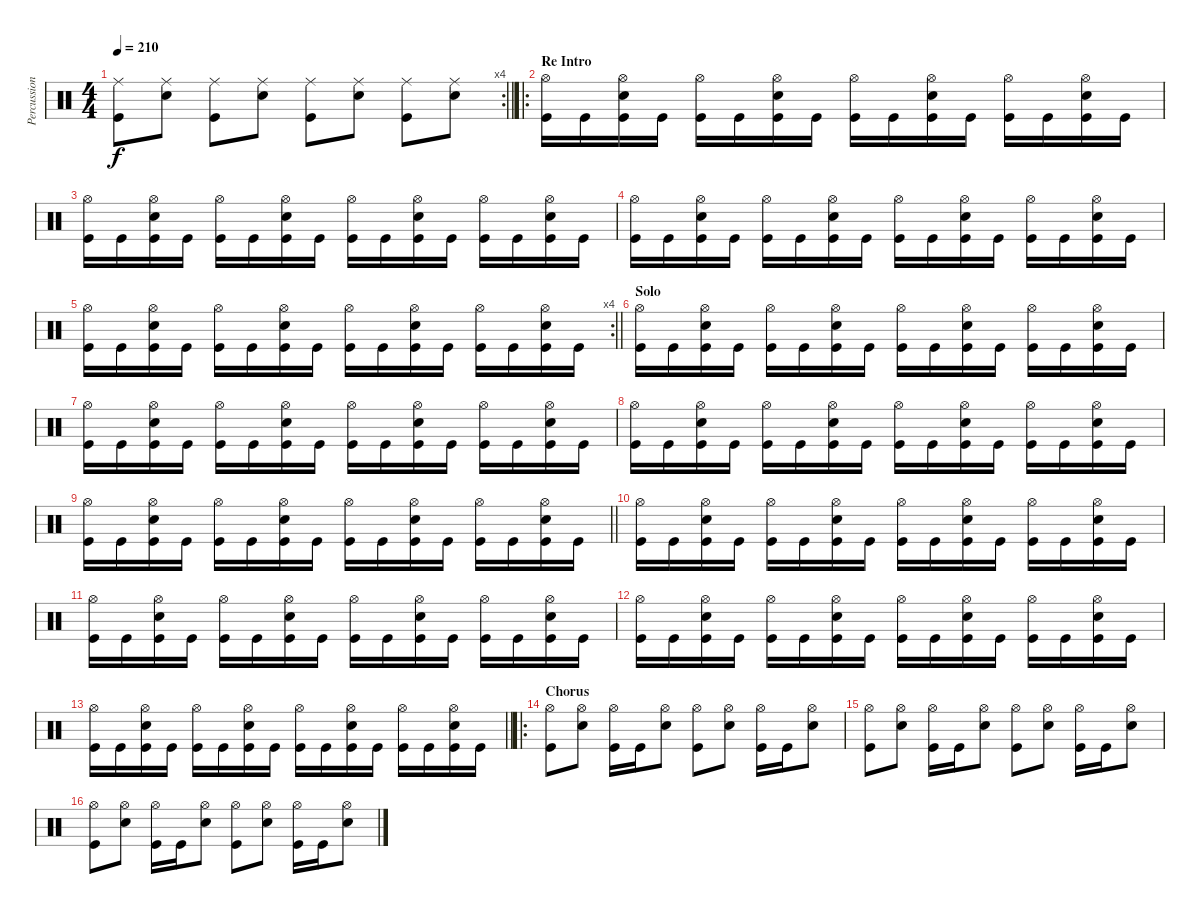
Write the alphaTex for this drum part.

\track ("Percussion" "Percussion") {instrument percussion}
\staff {score}
\articulation defaults
\rc 4
\ts (4 4)
\tempo 210
\clef neutral
\barLineRight lightlight
\ks c
("Ride (middle)" "Kick (hit)").8{dy f} ("Ride (middle)" "Snare (hit) 2").8 ("Ride (middle)" "Kick (hit)").8 ("Ride (middle)" "Snare (hit) 2").8 ("Ride (middle)" "Kick (hit)").8 ("Ride (middle)" "Snare (hit) 2").8 ("Ride (middle)" "Kick (hit)").8 ("Ride (middle)" "Snare (hit) 2").8 |
\ro
\section ("" "Re Intro")
("Hi-Hat (open)" "Kick (hit)").16 "Kick (hit)".16 ("Hi-Hat (open)" "Snare (hit) 2" "Kick (hit)").16 "Kick (hit)".16 ("Hi-Hat (open)" "Kick (hit)").16 "Kick (hit)".16 ("Hi-Hat (open)" "Snare (hit) 2" "Kick (hit)").16 "Kick (hit)".16 ("Hi-Hat (open)" "Kick (hit)").16 "Kick (hit)".16 ("Hi-Hat (open)" "Snare (hit) 2" "Kick (hit)").16 "Kick (hit)".16 ("Hi-Hat (open)" "Kick (hit)").16 "Kick (hit)".16 ("Hi-Hat (open)" "Snare (hit) 2" "Kick (hit)").16 "Kick (hit)".16 |
("Hi-Hat (open)" "Kick (hit)").16 "Kick (hit)".16 ("Hi-Hat (open)" "Snare (hit) 2" "Kick (hit)").16 "Kick (hit)".16 ("Hi-Hat (open)" "Kick (hit)").16 "Kick (hit)".16 ("Hi-Hat (open)" "Snare (hit) 2" "Kick (hit)").16 "Kick (hit)".16 ("Hi-Hat (open)" "Kick (hit)").16 "Kick (hit)".16 ("Hi-Hat (open)" "Snare (hit) 2" "Kick (hit)").16 "Kick (hit)".16 ("Hi-Hat (open)" "Kick (hit)").16 "Kick (hit)".16 ("Hi-Hat (open)" "Snare (hit) 2" "Kick (hit)").16 "Kick (hit)".16 |
("Hi-Hat (open)" "Kick (hit)").16 "Kick (hit)".16 ("Hi-Hat (open)" "Snare (hit) 2" "Kick (hit)").16 "Kick (hit)".16 ("Hi-Hat (open)" "Kick (hit)").16 "Kick (hit)".16 ("Hi-Hat (open)" "Snare (hit) 2" "Kick (hit)").16 "Kick (hit)".16 ("Hi-Hat (open)" "Kick (hit)").16 "Kick (hit)".16 ("Hi-Hat (open)" "Snare (hit) 2" "Kick (hit)").16 "Kick (hit)".16 ("Hi-Hat (open)" "Kick (hit)").16 "Kick (hit)".16 ("Hi-Hat (open)" "Snare (hit) 2" "Kick (hit)").16 "Kick (hit)".16 |
\rc 4
\barLineRight lightlight
("Hi-Hat (open)" "Kick (hit)").16 "Kick (hit)".16 ("Hi-Hat (open)" "Snare (hit) 2" "Kick (hit)").16 "Kick (hit)".16 ("Hi-Hat (open)" "Kick (hit)").16 "Kick (hit)".16 ("Hi-Hat (open)" "Snare (hit) 2" "Kick (hit)").16 "Kick (hit)".16 ("Hi-Hat (open)" "Kick (hit)").16 "Kick (hit)".16 ("Hi-Hat (open)" "Snare (hit) 2" "Kick (hit)").16 "Kick (hit)".16 ("Hi-Hat (open)" "Kick (hit)").16 "Kick (hit)".16 ("Hi-Hat (open)" "Snare (hit) 2" "Kick (hit)").16 "Kick (hit)".16 |
\section ("" "Solo")
("Hi-Hat (open)" "Kick (hit)").16 "Kick (hit)".16 ("Hi-Hat (open)" "Snare (hit) 2" "Kick (hit)").16 "Kick (hit)".16 ("Hi-Hat (open)" "Kick (hit)").16 "Kick (hit)".16 ("Hi-Hat (open)" "Snare (hit) 2" "Kick (hit)").16 "Kick (hit)".16 ("Hi-Hat (open)" "Kick (hit)").16 "Kick (hit)".16 ("Hi-Hat (open)" "Snare (hit) 2" "Kick (hit)").16 "Kick (hit)".16 ("Hi-Hat (open)" "Kick (hit)").16 "Kick (hit)".16 ("Hi-Hat (open)" "Snare (hit) 2" "Kick (hit)").16 "Kick (hit)".16 |
("Hi-Hat (open)" "Kick (hit)").16 "Kick (hit)".16 ("Hi-Hat (open)" "Snare (hit) 2" "Kick (hit)").16 "Kick (hit)".16 ("Hi-Hat (open)" "Kick (hit)").16 "Kick (hit)".16 ("Hi-Hat (open)" "Snare (hit) 2" "Kick (hit)").16 "Kick (hit)".16 ("Hi-Hat (open)" "Kick (hit)").16 "Kick (hit)".16 ("Hi-Hat (open)" "Snare (hit) 2" "Kick (hit)").16 "Kick (hit)".16 ("Hi-Hat (open)" "Kick (hit)").16 "Kick (hit)".16 ("Hi-Hat (open)" "Snare (hit) 2" "Kick (hit)").16 "Kick (hit)".16 |
("Hi-Hat (open)" "Kick (hit)").16 "Kick (hit)".16 ("Hi-Hat (open)" "Snare (hit) 2" "Kick (hit)").16 "Kick (hit)".16 ("Hi-Hat (open)" "Kick (hit)").16 "Kick (hit)".16 ("Hi-Hat (open)" "Snare (hit) 2" "Kick (hit)").16 "Kick (hit)".16 ("Hi-Hat (open)" "Kick (hit)").16 "Kick (hit)".16 ("Hi-Hat (open)" "Snare (hit) 2" "Kick (hit)").16 "Kick (hit)".16 ("Hi-Hat (open)" "Kick (hit)").16 "Kick (hit)".16 ("Hi-Hat (open)" "Snare (hit) 2" "Kick (hit)").16 "Kick (hit)".16 |
\barLineRight lightlight
("Hi-Hat (open)" "Kick (hit)").16 "Kick (hit)".16 ("Hi-Hat (open)" "Snare (hit) 2" "Kick (hit)").16 "Kick (hit)".16 ("Hi-Hat (open)" "Kick (hit)").16 "Kick (hit)".16 ("Hi-Hat (open)" "Snare (hit) 2" "Kick (hit)").16 "Kick (hit)".16 ("Hi-Hat (open)" "Kick (hit)").16 "Kick (hit)".16 ("Hi-Hat (open)" "Snare (hit) 2" "Kick (hit)").16 "Kick (hit)".16 ("Hi-Hat (open)" "Kick (hit)").16 "Kick (hit)".16 ("Hi-Hat (open)" "Snare (hit) 2" "Kick (hit)").16 "Kick (hit)".16 |
("Hi-Hat (open)" "Kick (hit)").16 "Kick (hit)".16 ("Hi-Hat (open)" "Snare (hit) 2" "Kick (hit)").16 "Kick (hit)".16 ("Hi-Hat (open)" "Kick (hit)").16 "Kick (hit)".16 ("Hi-Hat (open)" "Snare (hit) 2" "Kick (hit)").16 "Kick (hit)".16 ("Hi-Hat (open)" "Kick (hit)").16 "Kick (hit)".16 ("Hi-Hat (open)" "Snare (hit) 2" "Kick (hit)").16 "Kick (hit)".16 ("Hi-Hat (open)" "Kick (hit)").16 "Kick (hit)".16 ("Hi-Hat (open)" "Snare (hit) 2" "Kick (hit)").16 "Kick (hit)".16 |
("Hi-Hat (open)" "Kick (hit)").16 "Kick (hit)".16 ("Hi-Hat (open)" "Snare (hit) 2" "Kick (hit)").16 "Kick (hit)".16 ("Hi-Hat (open)" "Kick (hit)").16 "Kick (hit)".16 ("Hi-Hat (open)" "Snare (hit) 2" "Kick (hit)").16 "Kick (hit)".16 ("Hi-Hat (open)" "Kick (hit)").16 "Kick (hit)".16 ("Hi-Hat (open)" "Snare (hit) 2" "Kick (hit)").16 "Kick (hit)".16 ("Hi-Hat (open)" "Kick (hit)").16 "Kick (hit)".16 ("Hi-Hat (open)" "Snare (hit) 2" "Kick (hit)").16 "Kick (hit)".16 |
("Hi-Hat (open)" "Kick (hit)").16 "Kick (hit)".16 ("Hi-Hat (open)" "Snare (hit) 2" "Kick (hit)").16 "Kick (hit)".16 ("Hi-Hat (open)" "Kick (hit)").16 "Kick (hit)".16 ("Hi-Hat (open)" "Snare (hit) 2" "Kick (hit)").16 "Kick (hit)".16 ("Hi-Hat (open)" "Kick (hit)").16 "Kick (hit)".16 ("Hi-Hat (open)" "Snare (hit) 2" "Kick (hit)").16 "Kick (hit)".16 ("Hi-Hat (open)" "Kick (hit)").16 "Kick (hit)".16 ("Hi-Hat (open)" "Snare (hit) 2" "Kick (hit)").16 "Kick (hit)".16 |
\barLineRight lightlight
("Hi-Hat (open)" "Kick (hit)").16 "Kick (hit)".16 ("Hi-Hat (open)" "Snare (hit) 2" "Kick (hit)").16 "Kick (hit)".16 ("Hi-Hat (open)" "Kick (hit)").16 "Kick (hit)".16 ("Hi-Hat (open)" "Snare (hit) 2" "Kick (hit)").16 "Kick (hit)".16 ("Hi-Hat (open)" "Kick (hit)").16 "Kick (hit)".16 ("Hi-Hat (open)" "Snare (hit) 2" "Kick (hit)").16 "Kick (hit)".16 ("Hi-Hat (open)" "Kick (hit)").16 "Kick (hit)".16 ("Hi-Hat (open)" "Snare (hit) 2" "Kick (hit)").16 "Kick (hit)".16 |
\ro
\section ("" "Chorus")
("Hi-Hat (open)" "Kick (hit)").8 ("Hi-Hat (open)" "Snare (hit) 2").8 ("Hi-Hat (open)" "Kick (hit)").16 "Kick (hit)".16 ("Hi-Hat (open)" "Snare (hit) 2").8 ("Hi-Hat (open)" "Kick (hit)").8 ("Hi-Hat (open)" "Snare (hit) 2").8 ("Hi-Hat (open)" "Kick (hit)").16 "Kick (hit)".16 ("Hi-Hat (open)" "Snare (hit) 2").8 |
("Hi-Hat (open)" "Kick (hit)").8 ("Hi-Hat (open)" "Snare (hit) 2").8 ("Hi-Hat (open)" "Kick (hit)").16 "Kick (hit)".16 ("Hi-Hat (open)" "Snare (hit) 2").8 ("Hi-Hat (open)" "Kick (hit)").8 ("Hi-Hat (open)" "Snare (hit) 2").8 ("Hi-Hat (open)" "Kick (hit)").16 "Kick (hit)".16 ("Hi-Hat (open)" "Snare (hit) 2").8 |
("Hi-Hat (open)" "Kick (hit)").8 ("Hi-Hat (open)" "Snare (hit) 2").8 ("Hi-Hat (open)" "Kick (hit)").16 "Kick (hit)".16 ("Hi-Hat (open)" "Snare (hit) 2").8 ("Hi-Hat (open)" "Kick (hit)").8 ("Hi-Hat (open)" "Snare (hit) 2").8 ("Hi-Hat (open)" "Kick (hit)").16 "Kick (hit)".16 ("Hi-Hat (open)" "Snare (hit) 2").8
